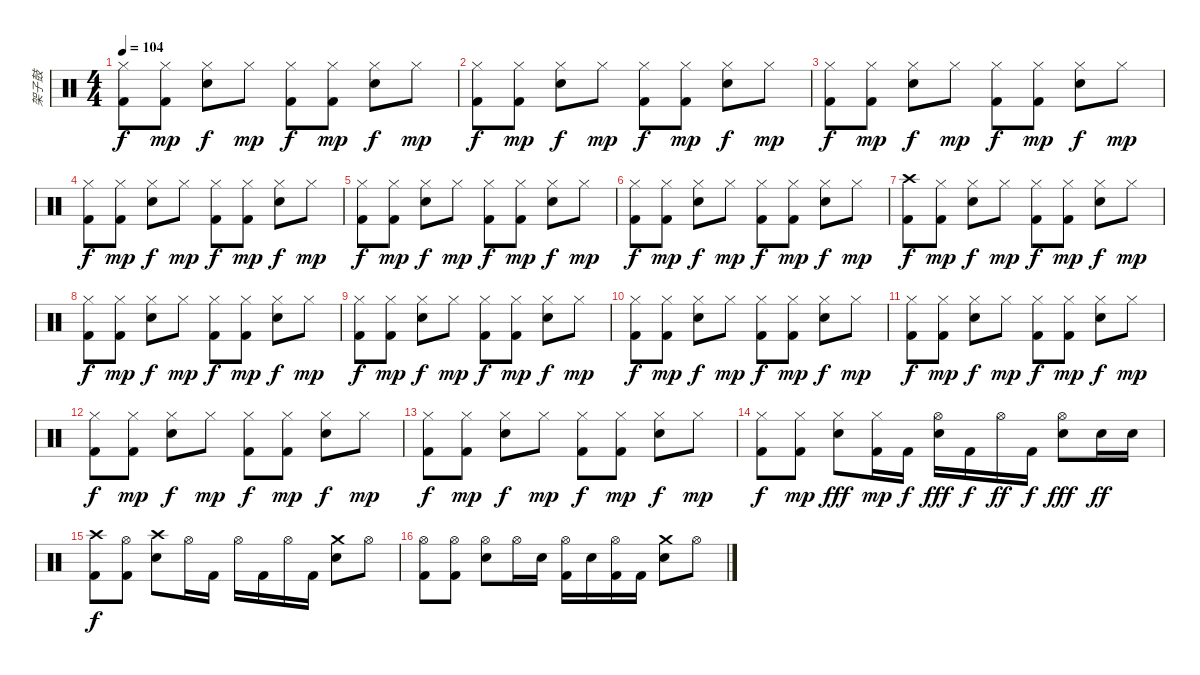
\track ("架子鼓" "架子鼓") {instrument percussion}
\staff {score}
\articulation defaults
\ts (4 4)
\tempo 104
\clef neutral
\ks c
("Hi-Hat (closed)" "Kick (hit) 2").8{dy f} ("Hi-Hat (closed)" "Kick (hit) 2").8{dy mp} ("Hi-Hat (closed)" "Electric Snare (hit)").8{dy f} "Hi-Hat (closed)".8{dy mp} ("Hi-Hat (closed)" "Kick (hit) 2").8{dy f} ("Hi-Hat (closed)" "Kick (hit) 2").8{dy mp} ("Hi-Hat (closed)" "Electric Snare (hit)").8{dy f} "Hi-Hat (closed)".8{dy mp} |
("Hi-Hat (closed)" "Kick (hit) 2").8{dy f} ("Hi-Hat (closed)" "Kick (hit) 2").8{dy mp} ("Hi-Hat (closed)" "Electric Snare (hit)").8{dy f} "Hi-Hat (closed)".8{dy mp} ("Hi-Hat (closed)" "Kick (hit) 2").8{dy f} ("Hi-Hat (closed)" "Kick (hit) 2").8{dy mp} ("Hi-Hat (closed)" "Electric Snare (hit)").8{dy f} "Hi-Hat (closed)".8{dy mp} |
("Hi-Hat (closed)" "Kick (hit) 2").8{dy f} ("Hi-Hat (closed)" "Kick (hit) 2").8{dy mp} ("Hi-Hat (closed)" "Electric Snare (hit)").8{dy f} "Hi-Hat (closed)".8{dy mp} ("Hi-Hat (closed)" "Kick (hit) 2").8{dy f} ("Hi-Hat (closed)" "Kick (hit) 2").8{dy mp} ("Hi-Hat (closed)" "Electric Snare (hit)").8{dy f} "Hi-Hat (closed)".8{dy mp} |
("Hi-Hat (closed)" "Kick (hit) 2").8{dy f} ("Hi-Hat (closed)" "Kick (hit) 2").8{dy mp} ("Hi-Hat (closed)" "Electric Snare (hit)").8{dy f} "Hi-Hat (closed)".8{dy mp} ("Hi-Hat (closed)" "Kick (hit) 2").8{dy f} ("Hi-Hat (closed)" "Kick (hit) 2").8{dy mp} ("Hi-Hat (closed)" "Electric Snare (hit)").8{dy f} "Hi-Hat (closed)".8{dy mp} |
("Hi-Hat (closed)" "Kick (hit) 2").8{dy f} ("Hi-Hat (closed)" "Kick (hit) 2").8{dy mp} ("Hi-Hat (closed)" "Electric Snare (hit)").8{dy f} "Hi-Hat (closed)".8{dy mp} ("Hi-Hat (closed)" "Kick (hit) 2").8{dy f} ("Hi-Hat (closed)" "Kick (hit) 2").8{dy mp} ("Hi-Hat (closed)" "Electric Snare (hit)").8{dy f} "Hi-Hat (closed)".8{dy mp} |
("Hi-Hat (closed)" "Kick (hit) 2").8{dy f} ("Hi-Hat (closed)" "Kick (hit) 2").8{dy mp} ("Hi-Hat (closed)" "Electric Snare (hit)").8{dy f} "Hi-Hat (closed)".8{dy mp} ("Hi-Hat (closed)" "Kick (hit) 2").8{dy f} ("Hi-Hat (closed)" "Kick (hit) 2").8{dy mp} ("Hi-Hat (closed)" "Electric Snare (hit)").8{dy f} "Hi-Hat (closed)".8{dy mp} |
("Crash high (hit)" "Kick (hit) 2").8{dy f} ("Hi-Hat (closed)" "Kick (hit) 2").8{dy mp} ("Hi-Hat (closed)" "Electric Snare (hit)").8{dy f} "Hi-Hat (closed)".8{dy mp} ("Hi-Hat (closed)" "Kick (hit) 2").8{dy f} ("Hi-Hat (closed)" "Kick (hit) 2").8{dy mp} ("Hi-Hat (closed)" "Electric Snare (hit)").8{dy f} "Hi-Hat (closed)".8{dy mp} |
("Hi-Hat (closed)" "Kick (hit) 2").8{dy f} ("Hi-Hat (closed)" "Kick (hit) 2").8{dy mp} ("Hi-Hat (closed)" "Electric Snare (hit)").8{dy f} "Hi-Hat (closed)".8{dy mp} ("Hi-Hat (closed)" "Kick (hit) 2").8{dy f} ("Hi-Hat (closed)" "Kick (hit) 2").8{dy mp} ("Hi-Hat (closed)" "Electric Snare (hit)").8{dy f} "Hi-Hat (closed)".8{dy mp} |
("Hi-Hat (closed)" "Kick (hit) 2").8{dy f} ("Hi-Hat (closed)" "Kick (hit) 2").8{dy mp} ("Hi-Hat (closed)" "Electric Snare (hit)").8{dy f} "Hi-Hat (closed)".8{dy mp} ("Hi-Hat (closed)" "Kick (hit) 2").8{dy f} ("Hi-Hat (closed)" "Kick (hit) 2").8{dy mp} ("Hi-Hat (closed)" "Electric Snare (hit)").8{dy f} "Hi-Hat (closed)".8{dy mp} |
("Hi-Hat (closed)" "Kick (hit) 2").8{dy f} ("Hi-Hat (closed)" "Kick (hit) 2").8{dy mp} ("Hi-Hat (closed)" "Electric Snare (hit)").8{dy f} "Hi-Hat (closed)".8{dy mp} ("Hi-Hat (closed)" "Kick (hit) 2").8{dy f} ("Hi-Hat (closed)" "Kick (hit) 2").8{dy mp} ("Hi-Hat (closed)" "Electric Snare (hit)").8{dy f} "Hi-Hat (closed)".8{dy mp} |
("Hi-Hat (closed)" "Kick (hit) 2").8{dy f} ("Hi-Hat (closed)" "Kick (hit) 2").8{dy mp} ("Hi-Hat (closed)" "Electric Snare (hit)").8{dy f} "Hi-Hat (closed)".8{dy mp} ("Hi-Hat (closed)" "Kick (hit) 2").8{dy f} ("Hi-Hat (closed)" "Kick (hit) 2").8{dy mp} ("Hi-Hat (closed)" "Electric Snare (hit)").8{dy f} "Hi-Hat (closed)".8{dy mp} |
("Hi-Hat (closed)" "Kick (hit) 2").8{dy f} ("Hi-Hat (closed)" "Kick (hit) 2").8{dy mp} ("Hi-Hat (closed)" "Electric Snare (hit)").8{dy f} "Hi-Hat (closed)".8{dy mp} ("Hi-Hat (closed)" "Kick (hit) 2").8{dy f} ("Hi-Hat (closed)" "Kick (hit) 2").8{dy mp} ("Hi-Hat (closed)" "Electric Snare (hit)").8{dy f} "Hi-Hat (closed)".8{dy mp} |
("Hi-Hat (closed)" "Kick (hit) 2").8{dy f} ("Hi-Hat (closed)" "Kick (hit) 2").8{dy mp} ("Hi-Hat (closed)" "Electric Snare (hit)").8{dy f} "Hi-Hat (closed)".8{dy mp} ("Hi-Hat (closed)" "Kick (hit) 2").8{dy f} ("Hi-Hat (closed)" "Kick (hit) 2").8{dy mp} ("Hi-Hat (closed)" "Electric Snare (hit)").8{dy f} "Hi-Hat (closed)".8{dy mp} |
("Hi-Hat (closed)" "Kick (hit) 2").8{dy f} ("Hi-Hat (closed)" "Kick (hit) 2").8{dy mp} ("Hi-Hat (closed)" "Electric Snare (hit)").8{dy fff} ("Hi-Hat (closed)" "Kick (hit) 2").16{dy mp} "Kick (hit) 2".16{dy f} ("Hi-Hat (open)" "Electric Snare (hit)").16{dy fff} "Kick (hit) 2".16{dy f} "Hi-Hat (open)".16{dy ff} "Kick (hit) 2".16{dy f} ("Hi-Hat (open)" "Electric Snare (hit)").8{dy fff} "Electric Snare (hit)".16{dy ff} "Electric Snare (hit)".16 |
("Crash high (hit)" "Kick (hit) 2").8{dy f} ("Hi-Hat (open)" "Kick (hit) 2").8 ("Crash high (hit)" "Electric Snare (hit)").8 "Hi-Hat (open)".16 "Kick (hit) 2".16 "Hi-Hat (open)".16 "Kick (hit) 2".16 "Hi-Hat (open)".16 "Kick (hit) 2".16 ("Crash medium (hit)" "Electric Snare (hit)").8 "Hi-Hat (open)".8 |
("Hi-Hat (open)" "Kick (hit) 2").8 ("Hi-Hat (open)" "Kick (hit) 2").8 ("Hi-Hat (open)" "Electric Snare (hit)").8 "Hi-Hat (open)".16 "Electric Snare (hit)".16 ("Hi-Hat (open)" "Kick (hit) 2").16 "Electric Snare (hit)".16 ("Hi-Hat (open)" "Kick (hit) 2").16 "Kick (hit) 2".16 ("Crash medium (hit)" "Electric Snare (hit)").8 "Hi-Hat (open)".8
